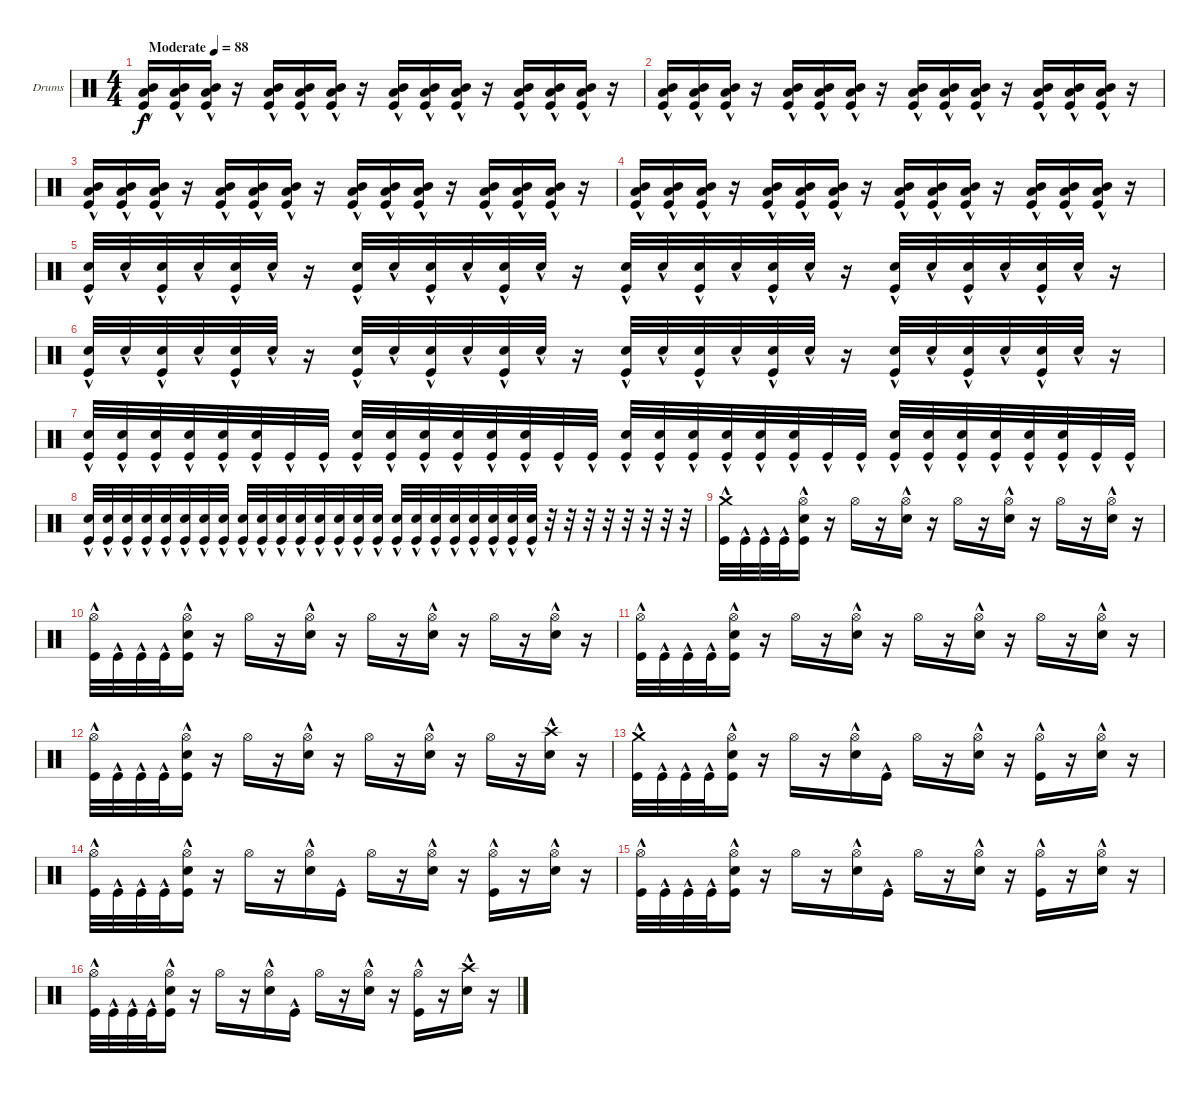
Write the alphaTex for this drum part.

\bracketExtendMode groupsimilarinstruments
\firstSystemTrackNameOrientation horizontal
\otherSystemsTrackNameOrientation horizontal
\track ("Drumkit" "Drums") {instrument percussion}
\staff {score}
\articulation defaults
\ts (4 4)
\beaming (8 2 2 2 2)
\tempo (88 "Moderate")
\clef neutral
\ks c
("Kick (hit)"{hac} "Low Tom (hit)"{hac} "Mid Tom (hit)"{hac}).16{dy f} ("Kick (hit)"{hac} "Low Tom (hit)"{hac} "Mid Tom (hit)"{hac}).16 ("Kick (hit)"{hac} "Low Tom (hit)"{hac} "Mid Tom (hit)"{hac}).16 r.16 ("Kick (hit)"{hac} "Low Tom (hit)"{hac} "Mid Tom (hit)"{hac}).16 ("Kick (hit)"{hac} "Low Tom (hit)"{hac} "Mid Tom (hit)"{hac}).16 ("Kick (hit)"{hac} "Low Tom (hit)"{hac} "Mid Tom (hit)"{hac}).16 r.16 ("Kick (hit)"{hac} "Low Tom (hit)"{hac} "Mid Tom (hit)"{hac}).16 ("Kick (hit)"{hac} "Low Tom (hit)"{hac} "Mid Tom (hit)"{hac}).16 ("Kick (hit)"{hac} "Low Tom (hit)"{hac} "Mid Tom (hit)"{hac}).16 r.16 ("Kick (hit)"{hac} "Low Tom (hit)"{hac} "Mid Tom (hit)"{hac}).16 ("Kick (hit)"{hac} "Low Tom (hit)"{hac} "Mid Tom (hit)"{hac}).16 ("Kick (hit)"{hac} "Low Tom (hit)"{hac} "Mid Tom (hit)"{hac}).16 r.16 |
("Kick (hit)"{hac} "Low Tom (hit)"{hac} "Mid Tom (hit)"{hac}).16 ("Kick (hit)"{hac} "Low Tom (hit)"{hac} "Mid Tom (hit)"{hac}).16 ("Kick (hit)"{hac} "Low Tom (hit)"{hac} "Mid Tom (hit)"{hac}).16 r.16 ("Kick (hit)"{hac} "Low Tom (hit)"{hac} "Mid Tom (hit)"{hac}).16 ("Kick (hit)"{hac} "Low Tom (hit)"{hac} "Mid Tom (hit)"{hac}).16 ("Kick (hit)"{hac} "Low Tom (hit)"{hac} "Mid Tom (hit)"{hac}).16 r.16 ("Kick (hit)"{hac} "Low Tom (hit)"{hac} "Mid Tom (hit)"{hac}).16 ("Kick (hit)"{hac} "Low Tom (hit)"{hac} "Mid Tom (hit)"{hac}).16 ("Kick (hit)"{hac} "Low Tom (hit)"{hac} "Mid Tom (hit)"{hac}).16 r.16 ("Kick (hit)"{hac} "Low Tom (hit)"{hac} "Mid Tom (hit)"{hac}).16 ("Kick (hit)"{hac} "Low Tom (hit)"{hac} "Mid Tom (hit)"{hac}).16 ("Kick (hit)"{hac} "Low Tom (hit)"{hac} "Mid Tom (hit)"{hac}).16 r.16 |
("Kick (hit)"{hac} "Low Tom (hit)"{hac} "Mid Tom (hit)"{hac}).16 ("Kick (hit)"{hac} "Low Tom (hit)"{hac} "Mid Tom (hit)"{hac}).16 ("Kick (hit)"{hac} "Low Tom (hit)"{hac} "Mid Tom (hit)"{hac}).16 r.16 ("Kick (hit)"{hac} "Low Tom (hit)"{hac} "Mid Tom (hit)"{hac}).16 ("Kick (hit)"{hac} "Low Tom (hit)"{hac} "Mid Tom (hit)"{hac}).16 ("Kick (hit)"{hac} "Low Tom (hit)"{hac} "Mid Tom (hit)"{hac}).16 r.16 ("Kick (hit)"{hac} "Low Tom (hit)"{hac} "Mid Tom (hit)"{hac}).16 ("Kick (hit)"{hac} "Low Tom (hit)"{hac} "Mid Tom (hit)"{hac}).16 ("Kick (hit)"{hac} "Low Tom (hit)"{hac} "Mid Tom (hit)"{hac}).16 r.16 ("Kick (hit)"{hac} "Low Tom (hit)"{hac} "Mid Tom (hit)"{hac}).16 ("Kick (hit)"{hac} "Low Tom (hit)"{hac} "Mid Tom (hit)"{hac}).16 ("Kick (hit)"{hac} "Low Tom (hit)"{hac} "Mid Tom (hit)"{hac}).16 r.16 |
("Kick (hit)"{hac} "Low Tom (hit)"{hac} "Mid Tom (hit)"{hac}).16 ("Kick (hit)"{hac} "Low Tom (hit)"{hac} "Mid Tom (hit)"{hac}).16 ("Kick (hit)"{hac} "Low Tom (hit)"{hac} "Mid Tom (hit)"{hac}).16 r.16 ("Kick (hit)"{hac} "Low Tom (hit)"{hac} "Mid Tom (hit)"{hac}).16 ("Kick (hit)"{hac} "Low Tom (hit)"{hac} "Mid Tom (hit)"{hac}).16 ("Kick (hit)"{hac} "Low Tom (hit)"{hac} "Mid Tom (hit)"{hac}).16 r.16 ("Kick (hit)"{hac} "Low Tom (hit)"{hac} "Mid Tom (hit)"{hac}).16 ("Kick (hit)"{hac} "Low Tom (hit)"{hac} "Mid Tom (hit)"{hac}).16 ("Kick (hit)"{hac} "Low Tom (hit)"{hac} "Mid Tom (hit)"{hac}).16 r.16 ("Kick (hit)"{hac} "Low Tom (hit)"{hac} "Mid Tom (hit)"{hac}).16 ("Kick (hit)"{hac} "Low Tom (hit)"{hac} "Mid Tom (hit)"{hac}).16 ("Kick (hit)"{hac} "Low Tom (hit)"{hac} "Mid Tom (hit)"{hac}).16 r.16 |
("Kick (hit)"{hac} "Snare (hit) 2"{hac}).32 "Snare (hit) 2"{hac}.32 ("Kick (hit)"{hac} "Snare (hit) 2"{hac}).32 "Snare (hit) 2"{hac}.32 ("Kick (hit)"{hac} "Snare (hit) 2"{hac}).32 "Snare (hit) 2"{hac}.32 r.16 ("Kick (hit)"{hac} "Snare (hit) 2"{hac}).32 "Snare (hit) 2"{hac}.32 ("Kick (hit)"{hac} "Snare (hit) 2"{hac}).32 "Snare (hit) 2"{hac}.32 ("Kick (hit)"{hac} "Snare (hit) 2"{hac}).32 "Snare (hit) 2"{hac}.32 r.16 ("Kick (hit)"{hac} "Snare (hit) 2"{hac}).32 "Snare (hit) 2"{hac}.32 ("Kick (hit)"{hac} "Snare (hit) 2"{hac}).32 "Snare (hit) 2"{hac}.32 ("Kick (hit)"{hac} "Snare (hit) 2"{hac}).32 "Snare (hit) 2"{hac}.32 r.16 ("Kick (hit)"{hac} "Snare (hit) 2"{hac}).32 "Snare (hit) 2"{hac}.32 ("Kick (hit)"{hac} "Snare (hit) 2"{hac}).32 "Snare (hit) 2"{hac}.32 ("Kick (hit)"{hac} "Snare (hit) 2"{hac}).32 "Snare (hit) 2"{hac}.32 r.16 |
("Kick (hit)"{hac} "Snare (hit) 2"{hac}).32 "Snare (hit) 2"{hac}.32 ("Kick (hit)"{hac} "Snare (hit) 2"{hac}).32 "Snare (hit) 2"{hac}.32 ("Kick (hit)"{hac} "Snare (hit) 2"{hac}).32 "Snare (hit) 2"{hac}.32 r.16 ("Kick (hit)"{hac} "Snare (hit) 2"{hac}).32 "Snare (hit) 2"{hac}.32 ("Kick (hit)"{hac} "Snare (hit) 2"{hac}).32 "Snare (hit) 2"{hac}.32 ("Kick (hit)"{hac} "Snare (hit) 2"{hac}).32 "Snare (hit) 2"{hac}.32 r.16 ("Kick (hit)"{hac} "Snare (hit) 2"{hac}).32 "Snare (hit) 2"{hac}.32 ("Kick (hit)"{hac} "Snare (hit) 2"{hac}).32 "Snare (hit) 2"{hac}.32 ("Kick (hit)"{hac} "Snare (hit) 2"{hac}).32 "Snare (hit) 2"{hac}.32 r.16 ("Kick (hit)"{hac} "Snare (hit) 2"{hac}).32 "Snare (hit) 2"{hac}.32 ("Kick (hit)"{hac} "Snare (hit) 2"{hac}).32 "Snare (hit) 2"{hac}.32 ("Kick (hit)"{hac} "Snare (hit) 2"{hac}).32 "Snare (hit) 2"{hac}.32 r.16 |
("Kick (hit)"{hac} "Snare (hit) 2"{hac}).32 ("Kick (hit)"{hac} "Snare (hit) 2"{hac}).32 ("Kick (hit)" "Snare (hit) 2"{hac}).32 ("Kick (hit)"{hac} "Snare (hit) 2"{hac}).32 ("Kick (hit)"{hac} "Snare (hit) 2"{hac}).32 ("Kick (hit)"{hac} "Snare (hit) 2"{hac}).32 "Kick (hit)"{hac}.32 "Kick (hit)"{hac}.32 ("Kick (hit)"{hac} "Snare (hit) 2"{hac}).32 ("Kick (hit)"{hac} "Snare (hit) 2"{hac}).32 ("Kick (hit)" "Snare (hit) 2"{hac}).32 ("Kick (hit)"{hac} "Snare (hit) 2"{hac}).32 ("Kick (hit)"{hac} "Snare (hit) 2"{hac}).32 ("Kick (hit)"{hac} "Snare (hit) 2"{hac}).32 "Kick (hit)"{hac}.32 "Kick (hit)"{hac}.32 ("Kick (hit)"{hac} "Snare (hit) 2"{hac}).32 ("Kick (hit)"{hac} "Snare (hit) 2"{hac}).32 ("Kick (hit)" "Snare (hit) 2"{hac}).32 ("Kick (hit)"{hac} "Snare (hit) 2"{hac}).32 ("Kick (hit)"{hac} "Snare (hit) 2"{hac}).32 ("Kick (hit)"{hac} "Snare (hit) 2"{hac}).32 "Kick (hit)"{hac}.32 "Kick (hit)"{hac}.32 ("Kick (hit)"{hac} "Snare (hit) 2"{hac}).32 ("Kick (hit)"{hac} "Snare (hit) 2"{hac}).32 ("Kick (hit)" "Snare (hit) 2"{hac}).32 ("Kick (hit)"{hac} "Snare (hit) 2"{hac}).32 ("Kick (hit)"{hac} "Snare (hit) 2"{hac}).32 ("Kick (hit)"{hac} "Snare (hit) 2"{hac}).32 "Kick (hit)"{hac}.32 "Kick (hit)"{hac}.32 |
("Kick (hit)"{hac} "Snare (hit) 2"{hac}).32 ("Kick (hit)"{hac} "Snare (hit) 2"{hac}).32 ("Kick (hit)" "Snare (hit) 2"{hac}).32 ("Kick (hit)"{hac} "Snare (hit) 2"{hac}).32 ("Kick (hit)"{hac} "Snare (hit) 2"{hac}).32 ("Kick (hit)"{hac} "Snare (hit) 2"{hac}).32 ("Kick (hit)"{hac} "Snare (hit) 2"{hac}).32 ("Kick (hit)"{hac} "Snare (hit) 2"{hac}).32 ("Kick (hit)"{hac} "Snare (hit) 2"{hac}).32 ("Kick (hit)"{hac} "Snare (hit) 2"{hac}).32 ("Kick (hit)" "Snare (hit) 2"{hac}).32 ("Kick (hit)"{hac} "Snare (hit) 2"{hac}).32 ("Kick (hit)"{hac} "Snare (hit) 2"{hac}).32 ("Kick (hit)"{hac} "Snare (hit) 2"{hac}).32 ("Kick (hit)"{hac} "Snare (hit) 2"{hac}).32 ("Kick (hit)"{hac} "Snare (hit) 2"{hac}).32 ("Kick (hit)"{hac} "Snare (hit) 2"{hac}).32 ("Kick (hit)"{hac} "Snare (hit) 2"{hac}).32 ("Kick (hit)" "Snare (hit) 2"{hac}).32 ("Kick (hit)"{hac} "Snare (hit) 2"{hac}).32 ("Kick (hit)"{hac} "Snare (hit) 2"{hac}).32 ("Kick (hit)"{hac} "Snare (hit) 2"{hac}).32 ("Kick (hit)"{hac} "Snare (hit) 2"{hac}).32 ("Kick (hit)"{hac} "Snare (hit) 2"{hac}).32 r.32 r.32 r.32 r.32 r.32 r.32 r.32 r.32 |
("Kick (hit)"{hac} "Crash medium (hit)").32 "Kick (hit)"{hac}.32 "Kick (hit)"{hac}.32 "Kick (hit)"{hac}.32 ("Kick (hit)"{hac} "Snare (hit) 2" "Hi-Hat (open)").16 r.16 "Hi-Hat (open)".16 r.16 ("Snare (hit) 2"{hac} "Hi-Hat (open)").16 r.16 "Hi-Hat (open)".16 r.16 ("Snare (hit) 2"{hac} "Hi-Hat (open)").16 r.16 "Hi-Hat (open)".16 r.16 ("Snare (hit) 2"{hac} "Hi-Hat (open)").16 r.16 |
("Kick (hit)"{hac} "Hi-Hat (open)").32 "Kick (hit)"{hac}.32 "Kick (hit)"{hac}.32 "Kick (hit)"{hac}.32 ("Kick (hit)"{hac} "Snare (hit) 2" "Hi-Hat (open)").16 r.16 "Hi-Hat (open)".16 r.16 ("Snare (hit) 2"{hac} "Hi-Hat (open)").16 r.16 "Hi-Hat (open)".16 r.16 ("Snare (hit) 2"{hac} "Hi-Hat (open)").16 r.16 "Hi-Hat (open)".16 r.16 ("Snare (hit) 2"{hac} "Hi-Hat (open)").16 r.16 |
("Kick (hit)"{hac} "Hi-Hat (open)").32 "Kick (hit)"{hac}.32 "Kick (hit)"{hac}.32 "Kick (hit)"{hac}.32 ("Kick (hit)"{hac} "Snare (hit) 2" "Hi-Hat (open)").16 r.16 "Hi-Hat (open)".16 r.16 ("Snare (hit) 2"{hac} "Hi-Hat (open)").16 r.16 "Hi-Hat (open)".16 r.16 ("Snare (hit) 2"{hac} "Hi-Hat (open)").16 r.16 "Hi-Hat (open)".16 r.16 ("Snare (hit) 2"{hac} "Hi-Hat (open)").16 r.16 |
("Kick (hit)"{hac} "Hi-Hat (open)").32 "Kick (hit)"{hac}.32 "Kick (hit)"{hac}.32 "Kick (hit)"{hac}.32 ("Kick (hit)"{hac} "Snare (hit) 2" "Hi-Hat (open)").16 r.16 "Hi-Hat (open)".16 r.16 ("Snare (hit) 2"{hac} "Hi-Hat (open)").16 r.16 "Hi-Hat (open)".16 r.16 ("Snare (hit) 2"{hac} "Hi-Hat (open)").16 r.16 "Hi-Hat (open)".16 r.16 ("Snare (hit) 2"{hac} "Crash high (hit)").16 r.16 |
("Kick (hit)"{hac} "Crash medium (hit)").32 "Kick (hit)"{hac}.32 "Kick (hit)"{hac}.32 "Kick (hit)"{hac}.32 ("Kick (hit)"{hac} "Snare (hit) 2" "Hi-Hat (open)").16 r.16 "Hi-Hat (open)".16 r.16 ("Snare (hit) 2"{hac} "Hi-Hat (open)").16 "Kick (hit)"{hac}.16 "Hi-Hat (open)".16 r.16 ("Snare (hit) 2"{hac} "Hi-Hat (open)").16 r.16 ("Kick (hit)"{hac} "Hi-Hat (open)").16 r.16 ("Snare (hit) 2"{hac} "Hi-Hat (open)").16 r.16 |
("Kick (hit)"{hac} "Hi-Hat (open)").32 "Kick (hit)"{hac}.32 "Kick (hit)"{hac}.32 "Kick (hit)"{hac}.32 ("Kick (hit)"{hac} "Snare (hit) 2" "Hi-Hat (open)").16 r.16 "Hi-Hat (open)".16 r.16 ("Snare (hit) 2"{hac} "Hi-Hat (open)").16 "Kick (hit)"{hac}.16 "Hi-Hat (open)".16 r.16 ("Snare (hit) 2"{hac} "Hi-Hat (open)").16 r.16 ("Kick (hit)"{hac} "Hi-Hat (open)").16 r.16 ("Snare (hit) 2"{hac} "Hi-Hat (open)").16 r.16 |
("Kick (hit)"{hac} "Hi-Hat (open)").32 "Kick (hit)"{hac}.32 "Kick (hit)"{hac}.32 "Kick (hit)"{hac}.32 ("Kick (hit)"{hac} "Snare (hit) 2" "Hi-Hat (open)").16 r.16 "Hi-Hat (open)".16 r.16 ("Snare (hit) 2"{hac} "Hi-Hat (open)").16 "Kick (hit)"{hac}.16 "Hi-Hat (open)".16 r.16 ("Snare (hit) 2"{hac} "Hi-Hat (open)").16 r.16 ("Kick (hit)"{hac} "Hi-Hat (open)").16 r.16 ("Snare (hit) 2"{hac} "Hi-Hat (open)").16 r.16 |
("Kick (hit)"{hac} "Hi-Hat (open)").32 "Kick (hit)"{hac}.32 "Kick (hit)"{hac}.32 "Kick (hit)"{hac}.32 ("Kick (hit)"{hac} "Snare (hit) 2" "Hi-Hat (open)").16 r.16 "Hi-Hat (open)".16 r.16 ("Snare (hit) 2"{hac} "Hi-Hat (open)").16 "Kick (hit)"{hac}.16 "Hi-Hat (open)".16 r.16 ("Snare (hit) 2"{hac} "Hi-Hat (open)").16 r.16 ("Kick (hit)"{hac} "Hi-Hat (open)").16 r.16 ("Snare (hit) 2"{hac} "Crash high (hit)").16 r.16
